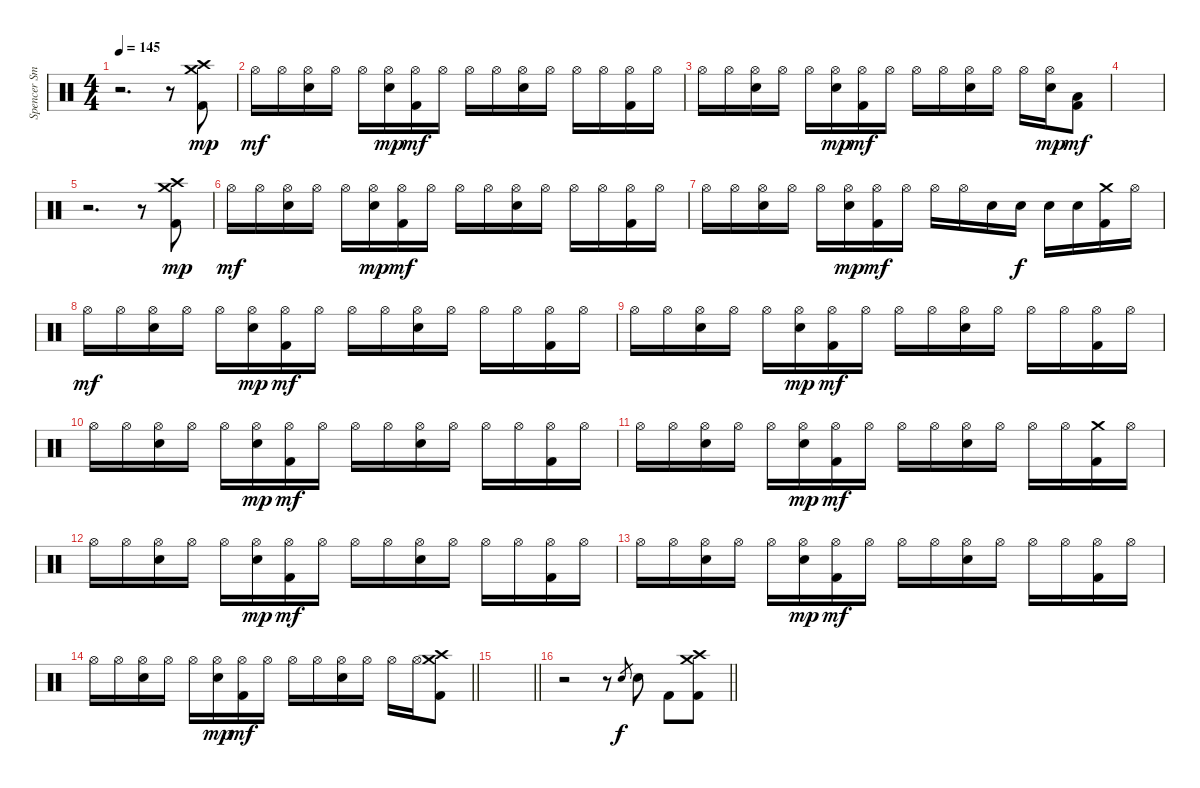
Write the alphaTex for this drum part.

\track ("Spencer Smith" "Spencer Sm") {instrument percussion}
\staff {score}
\articulation defaults
\ts (4 4)
\section ("" "")
\tempo 145
\clef neutral
\ks c
r.2{d dy mf} r.8 ("Crash medium (hit)" "Crash high (hit)" "Kick (hit) 2").8{dy mp} |
"Hi-Hat (open)".16{dy mf} "Hi-Hat (open)".16 ("Hi-Hat (open)" "Electric Snare (hit)").16 "Hi-Hat (open)".16 "Hi-Hat (open)".16 ("Hi-Hat (open)" "Electric Snare (hit)").16{dy mp} ("Hi-Hat (open)" "Kick (hit) 2").16{dy mf} "Hi-Hat (open)".16 "Hi-Hat (open)".16 "Hi-Hat (open)".16 ("Hi-Hat (open)" "Electric Snare (hit)").16 "Hi-Hat (open)".16 "Hi-Hat (open)".16 "Hi-Hat (open)".16 ("Hi-Hat (open)" "Kick (hit) 2").16 "Hi-Hat (open)".16 |
"Hi-Hat (open)".16 "Hi-Hat (open)".16 ("Hi-Hat (open)" "Electric Snare (hit)").16 "Hi-Hat (open)".16 "Hi-Hat (open)".16 ("Hi-Hat (open)" "Electric Snare (hit)").16{dy mp} ("Hi-Hat (open)" "Kick (hit) 2").16{dy mf} "Hi-Hat (open)".16 "Hi-Hat (open)".16 "Hi-Hat (open)".16 ("Hi-Hat (open)" "Electric Snare (hit)").16 "Hi-Hat (open)".16 "Hi-Hat (open)".16 ("Hi-Hat (open)" "Electric Snare (hit)").16{dy mp} ("Low Floor Tom (hit)" "Kick (hit) 2").8{dy mf} |
|
r.2{d} r.8 ("Crash medium (hit)" "Crash high (hit)" "Kick (hit) 2").8{dy mp} |
"Hi-Hat (open)".16{dy mf} "Hi-Hat (open)".16 ("Hi-Hat (open)" "Electric Snare (hit)").16 "Hi-Hat (open)".16 "Hi-Hat (open)".16 ("Hi-Hat (open)" "Electric Snare (hit)").16{dy mp} ("Hi-Hat (open)" "Kick (hit) 2").16{dy mf} "Hi-Hat (open)".16 "Hi-Hat (open)".16 "Hi-Hat (open)".16 ("Hi-Hat (open)" "Electric Snare (hit)").16 "Hi-Hat (open)".16 "Hi-Hat (open)".16 "Hi-Hat (open)".16 ("Hi-Hat (open)" "Kick (hit) 2").16 "Hi-Hat (open)".16 |
"Hi-Hat (open)".16 "Hi-Hat (open)".16 ("Hi-Hat (open)" "Electric Snare (hit)").16 "Hi-Hat (open)".16 "Hi-Hat (open)".16 ("Hi-Hat (open)" "Electric Snare (hit)").16{dy mp} ("Hi-Hat (open)" "Kick (hit) 2").16{dy mf} "Hi-Hat (open)".16 "Hi-Hat (open)".16 "Hi-Hat (open)".16 "Electric Snare (hit)".16 "Electric Snare (hit)".16{dy f} "Electric Snare (hit)".16 "Electric Snare (hit)".16 ("Crash medium (hit)" "Kick (hit) 2").16 "Hi-Hat (open)".16 |
"Hi-Hat (open)".16{dy mf} "Hi-Hat (open)".16 ("Hi-Hat (open)" "Electric Snare (hit)").16 "Hi-Hat (open)".16 "Hi-Hat (open)".16 ("Hi-Hat (open)" "Electric Snare (hit)").16{dy mp} ("Hi-Hat (open)" "Kick (hit) 2").16{dy mf} "Hi-Hat (open)".16 "Hi-Hat (open)".16 "Hi-Hat (open)".16 ("Hi-Hat (open)" "Electric Snare (hit)").16 "Hi-Hat (open)".16 "Hi-Hat (open)".16 "Hi-Hat (open)".16 ("Hi-Hat (open)" "Kick (hit) 2").16 "Hi-Hat (open)".16 |
"Hi-Hat (open)".16 "Hi-Hat (open)".16 ("Hi-Hat (open)" "Electric Snare (hit)").16 "Hi-Hat (open)".16 "Hi-Hat (open)".16 ("Hi-Hat (open)" "Electric Snare (hit)").16{dy mp} ("Hi-Hat (open)" "Kick (hit) 2").16{dy mf} "Hi-Hat (open)".16 "Hi-Hat (open)".16 "Hi-Hat (open)".16 ("Hi-Hat (open)" "Electric Snare (hit)").16 "Hi-Hat (open)".16 "Hi-Hat (open)".16 "Hi-Hat (open)".16 ("Hi-Hat (open)" "Kick (hit) 2").16 "Hi-Hat (open)".16 |
"Hi-Hat (open)".16 "Hi-Hat (open)".16 ("Hi-Hat (open)" "Electric Snare (hit)").16 "Hi-Hat (open)".16 "Hi-Hat (open)".16 ("Hi-Hat (open)" "Electric Snare (hit)").16{dy mp} ("Hi-Hat (open)" "Kick (hit) 2").16{dy mf} "Hi-Hat (open)".16 "Hi-Hat (open)".16 "Hi-Hat (open)".16 ("Hi-Hat (open)" "Electric Snare (hit)").16 "Hi-Hat (open)".16 "Hi-Hat (open)".16 "Hi-Hat (open)".16 ("Hi-Hat (open)" "Kick (hit) 2").16 "Hi-Hat (open)".16 |
"Hi-Hat (open)".16 "Hi-Hat (open)".16 ("Hi-Hat (open)" "Electric Snare (hit)").16 "Hi-Hat (open)".16 "Hi-Hat (open)".16 ("Hi-Hat (open)" "Electric Snare (hit)").16{dy mp} ("Hi-Hat (open)" "Kick (hit) 2").16{dy mf} "Hi-Hat (open)".16 "Hi-Hat (open)".16 "Hi-Hat (open)".16 ("Hi-Hat (open)" "Electric Snare (hit)").16 "Hi-Hat (open)".16 "Hi-Hat (open)".16 "Hi-Hat (open)".16 ("Crash medium (hit)" "Kick (hit) 2").16 "Hi-Hat (open)".16 |
"Hi-Hat (open)".16 "Hi-Hat (open)".16 ("Hi-Hat (open)" "Electric Snare (hit)").16 "Hi-Hat (open)".16 "Hi-Hat (open)".16 ("Hi-Hat (open)" "Electric Snare (hit)").16{dy mp} ("Hi-Hat (open)" "Kick (hit) 2").16{dy mf} "Hi-Hat (open)".16 "Hi-Hat (open)".16 "Hi-Hat (open)".16 ("Hi-Hat (open)" "Electric Snare (hit)").16 "Hi-Hat (open)".16 "Hi-Hat (open)".16 "Hi-Hat (open)".16 ("Hi-Hat (open)" "Kick (hit) 2").16 "Hi-Hat (open)".16 |
"Hi-Hat (open)".16 "Hi-Hat (open)".16 ("Hi-Hat (open)" "Electric Snare (hit)").16 "Hi-Hat (open)".16 "Hi-Hat (open)".16 ("Hi-Hat (open)" "Electric Snare (hit)").16{dy mp} ("Hi-Hat (open)" "Kick (hit) 2").16{dy mf} "Hi-Hat (open)".16 "Hi-Hat (open)".16 "Hi-Hat (open)".16 ("Hi-Hat (open)" "Electric Snare (hit)").16 "Hi-Hat (open)".16 "Hi-Hat (open)".16 "Hi-Hat (open)".16 ("Hi-Hat (open)" "Kick (hit) 2").16 "Hi-Hat (open)".16 |
\barLineRight lightlight "Hi-Hat (open)".16 "Hi-Hat (open)".16
("Hi-Hat (open)" "Electric Snare (hit)").16 "Hi-Hat (open)".16 "Hi-Hat (open)".16 ("Hi-Hat (open)" "Electric Snare (hit)").16{dy mp} ("Hi-Hat (open)" "Kick (hit) 2").16{dy mf} "Hi-Hat (open)".16 "Hi-Hat (open)".16 "Hi-Hat (open)".16 ("Hi-Hat (open)" "Electric Snare (hit)").16 "Hi-Hat (open)".16 "Hi-Hat (open)".16 "Hi-Hat (open)".16 ("Crash high (hit)" "Crash medium (hit)" "Kick (hit) 2").8 |
\barLineRight lightlight
|
\barLineRight lightlight
r.2 r.8 "Electric Snare (hit)".8{gr dy f} "Electric Snare (hit)".8 "Kick (hit) 2".8 ("Crash medium (hit)" "Crash high (hit)" "Kick (hit) 2").8
